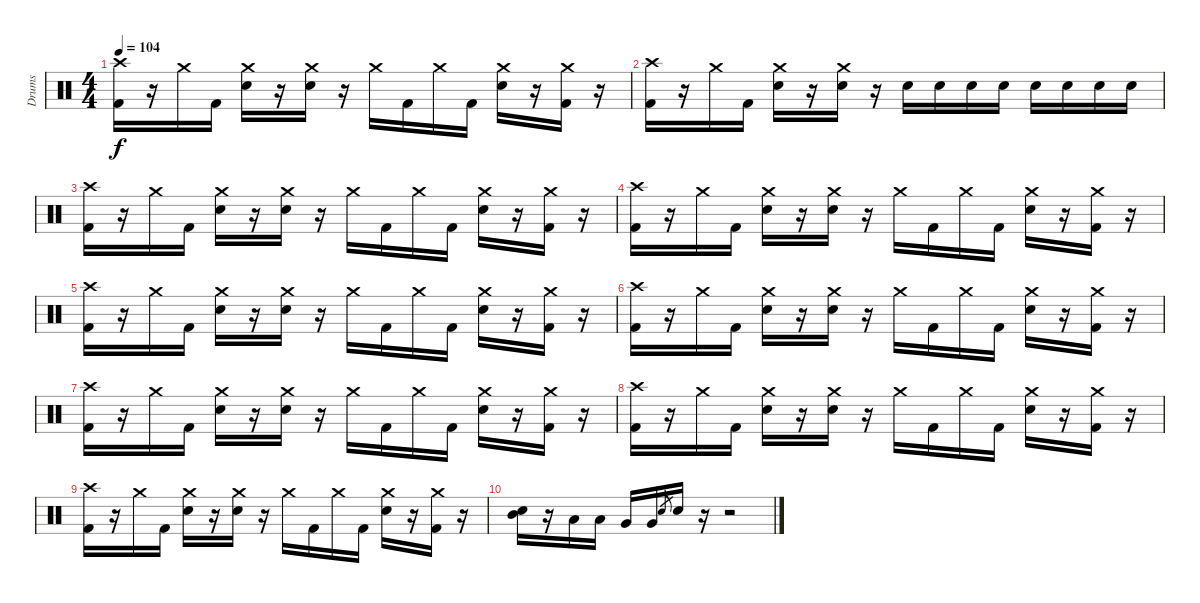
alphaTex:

\track ("Drums" "Drums") {instrument percussion}
\staff {score}
\articulation defaults
\ts (4 4)
\tempo 104
\clef neutral
\ks c
("Crash high (hit)" "Kick (hit) 2").16{dy f} r.16 "Crash medium (hit)".16 "Kick (hit) 2".16 ("Crash medium (hit)" "Electric Snare (hit)").16 r.16 ("Crash medium (hit)" "Electric Snare (hit)").16 r.16 "Crash medium (hit)".16 "Kick (hit) 2".16 "Crash medium (hit)".16 "Kick (hit) 2".16 ("Crash medium (hit)" "Electric Snare (hit)").16 r.16 ("Crash medium (hit)" "Kick (hit) 2").16 r.16 |
("Crash high (hit)" "Kick (hit) 2").16 r.16 "Crash medium (hit)".16 "Kick (hit) 2".16 ("Crash medium (hit)" "Electric Snare (hit)").16 r.16 ("Crash medium (hit)" "Electric Snare (hit)").16 r.16 "Electric Snare (hit)".16 "Electric Snare (hit)".16 "Electric Snare (hit)".16 "Electric Snare (hit)".16 "Electric Snare (hit)".16 "Electric Snare (hit)".16 "Electric Snare (hit)".16 "Electric Snare (hit)".16 |
("Crash high (hit)" "Kick (hit) 2").16 r.16 "Crash medium (hit)".16 "Kick (hit) 2".16 ("Crash medium (hit)" "Electric Snare (hit)").16 r.16 ("Crash medium (hit)" "Electric Snare (hit)").16 r.16 "Crash medium (hit)".16 "Kick (hit) 2".16 "Crash medium (hit)".16 "Kick (hit) 2".16 ("Crash medium (hit)" "Electric Snare (hit)").16 r.16 ("Crash medium (hit)" "Kick (hit) 2").16 r.16 |
("Crash high (hit)" "Kick (hit) 2").16 r.16 "Crash medium (hit)".16 "Kick (hit) 2".16 ("Crash medium (hit)" "Electric Snare (hit)").16 r.16 ("Crash medium (hit)" "Electric Snare (hit)").16 r.16 "Crash medium (hit)".16 "Kick (hit) 2".16 "Crash medium (hit)".16 "Kick (hit) 2".16 ("Crash medium (hit)" "Electric Snare (hit)").16 r.16 ("Crash medium (hit)" "Kick (hit) 2").16 r.16 |
("Crash high (hit)" "Kick (hit) 2").16 r.16 "Crash medium (hit)".16 "Kick (hit) 2".16 ("Crash medium (hit)" "Electric Snare (hit)").16 r.16 ("Crash medium (hit)" "Electric Snare (hit)").16 r.16 "Crash medium (hit)".16 "Kick (hit) 2".16 "Crash medium (hit)".16 "Kick (hit) 2".16 ("Crash medium (hit)" "Electric Snare (hit)").16 r.16 ("Crash medium (hit)" "Kick (hit) 2").16 r.16 |
("Crash high (hit)" "Kick (hit) 2").16 r.16 "Crash medium (hit)".16 "Kick (hit) 2".16 ("Crash medium (hit)" "Electric Snare (hit)").16 r.16 ("Crash medium (hit)" "Electric Snare (hit)").16 r.16 "Crash medium (hit)".16 "Kick (hit) 2".16 "Crash medium (hit)".16 "Kick (hit) 2".16 ("Crash medium (hit)" "Electric Snare (hit)").16 r.16 ("Crash medium (hit)" "Kick (hit) 2").16 r.16 |
("Crash high (hit)" "Kick (hit) 2").16 r.16 "Crash medium (hit)".16 "Kick (hit) 2".16 ("Crash medium (hit)" "Electric Snare (hit)").16 r.16 ("Crash medium (hit)" "Electric Snare (hit)").16 r.16 "Crash medium (hit)".16 "Kick (hit) 2".16 "Crash medium (hit)".16 "Kick (hit) 2".16 ("Crash medium (hit)" "Electric Snare (hit)").16 r.16 ("Crash medium (hit)" "Kick (hit) 2").16 r.16 |
("Crash high (hit)" "Kick (hit) 2").16 r.16 "Crash medium (hit)".16 "Kick (hit) 2".16 ("Crash medium (hit)" "Electric Snare (hit)").16 r.16 ("Crash medium (hit)" "Electric Snare (hit)").16 r.16 "Crash medium (hit)".16 "Kick (hit) 2".16 "Crash medium (hit)".16 "Kick (hit) 2".16 ("Crash medium (hit)" "Electric Snare (hit)").16 r.16 ("Crash medium (hit)" "Kick (hit) 2").16 r.16 |
("Crash high (hit)" "Kick (hit) 2").16 r.16 "Crash medium (hit)".16 "Kick (hit) 2".16 ("Crash medium (hit)" "Electric Snare (hit)").16 r.16 ("Crash medium (hit)" "Electric Snare (hit)").16 r.16 "Crash medium (hit)".16 "Kick (hit) 2".16 "Crash medium (hit)".16 "Kick (hit) 2".16 ("Crash medium (hit)" "Electric Snare (hit)").16 r.16 ("Crash medium (hit)" "Kick (hit) 2").16 r.16 |
("Mid Tom (hit)" "Electric Snare (hit)").16 r.16 "Low Tom (hit)".16 "Low Tom (hit)".16 "Very Low Tom (hit)".16 "Very Low Tom (hit)".16 "Electric Snare (hit)".8{gr} "Electric Snare (hit)".16 r.16 r.2
